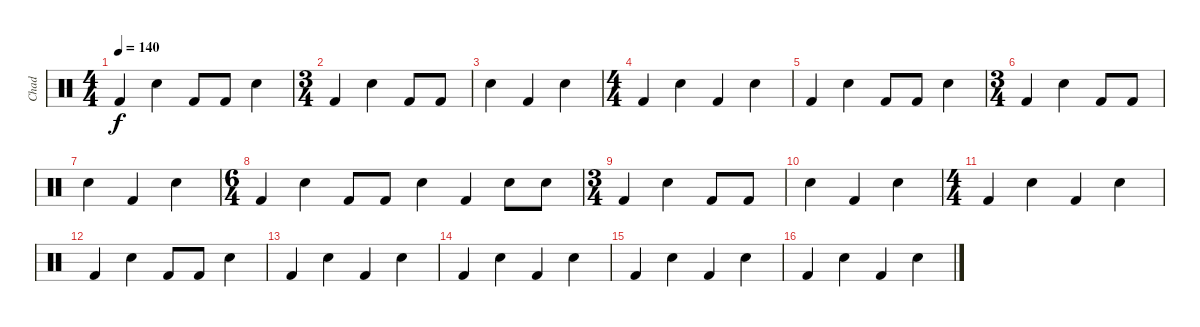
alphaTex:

\track ("Chad" "Chad") {instrument percussion}
\staff {score}
\articulation defaults
\ts (4 4)
\tempo 140
\clef neutral
\ks c "Kick (hit) 2".4{dy f} "Electric Snare (hit)".4 "Kick (hit) 2".8 "Kick (hit) 2".8 "Electric Snare (hit)".4
|
\ts (3 4)
"Kick (hit) 2".4 "Electric Snare (hit)".4 "Kick (hit) 2".8 "Kick (hit) 2".8 |
"Electric Snare (hit)".4 "Kick (hit) 2".4 "Electric Snare (hit)".4 |
\ts (4 4)
"Kick (hit) 2".4 "Electric Snare (hit)".4 "Kick (hit) 2".4 "Electric Snare (hit)".4 |
"Kick (hit) 2".4 "Electric Snare (hit)".4 "Kick (hit) 2".8 "Kick (hit) 2".8 "Electric Snare (hit)".4 |
\ts (3 4)
"Kick (hit) 2".4 "Electric Snare (hit)".4 "Kick (hit) 2".8 "Kick (hit) 2".8 |
"Electric Snare (hit)".4 "Kick (hit) 2".4 "Electric Snare (hit)".4 |
\ts (6 4)
"Kick (hit) 2".4 "Electric Snare (hit)".4 "Kick (hit) 2".8 "Kick (hit) 2".8 "Electric Snare (hit)".4 "Kick (hit) 2".4 "Electric Snare (hit)".8 "Electric Snare (hit)".8 |
\ts (3 4)
"Kick (hit) 2".4 "Electric Snare (hit)".4 "Kick (hit) 2".8 "Kick (hit) 2".8 |
"Electric Snare (hit)".4 "Kick (hit) 2".4 "Electric Snare (hit)".4 |
\ts (4 4)
"Kick (hit) 2".4 "Electric Snare (hit)".4 "Kick (hit) 2".4 "Electric Snare (hit)".4 |
"Kick (hit) 2".4 "Electric Snare (hit)".4 "Kick (hit) 2".8 "Kick (hit) 2".8 "Electric Snare (hit)".4 |
"Kick (hit) 2".4 "Electric Snare (hit)".4 "Kick (hit) 2".4 "Electric Snare (hit)".4 |
"Kick (hit) 2".4 "Electric Snare (hit)".4 "Kick (hit) 2".4 "Electric Snare (hit)".4 |
"Kick (hit) 2".4 "Electric Snare (hit)".4 "Kick (hit) 2".4 "Electric Snare (hit)".4 |
"Kick (hit) 2".4 "Electric Snare (hit)".4 "Kick (hit) 2".4 "Electric Snare (hit)".4
